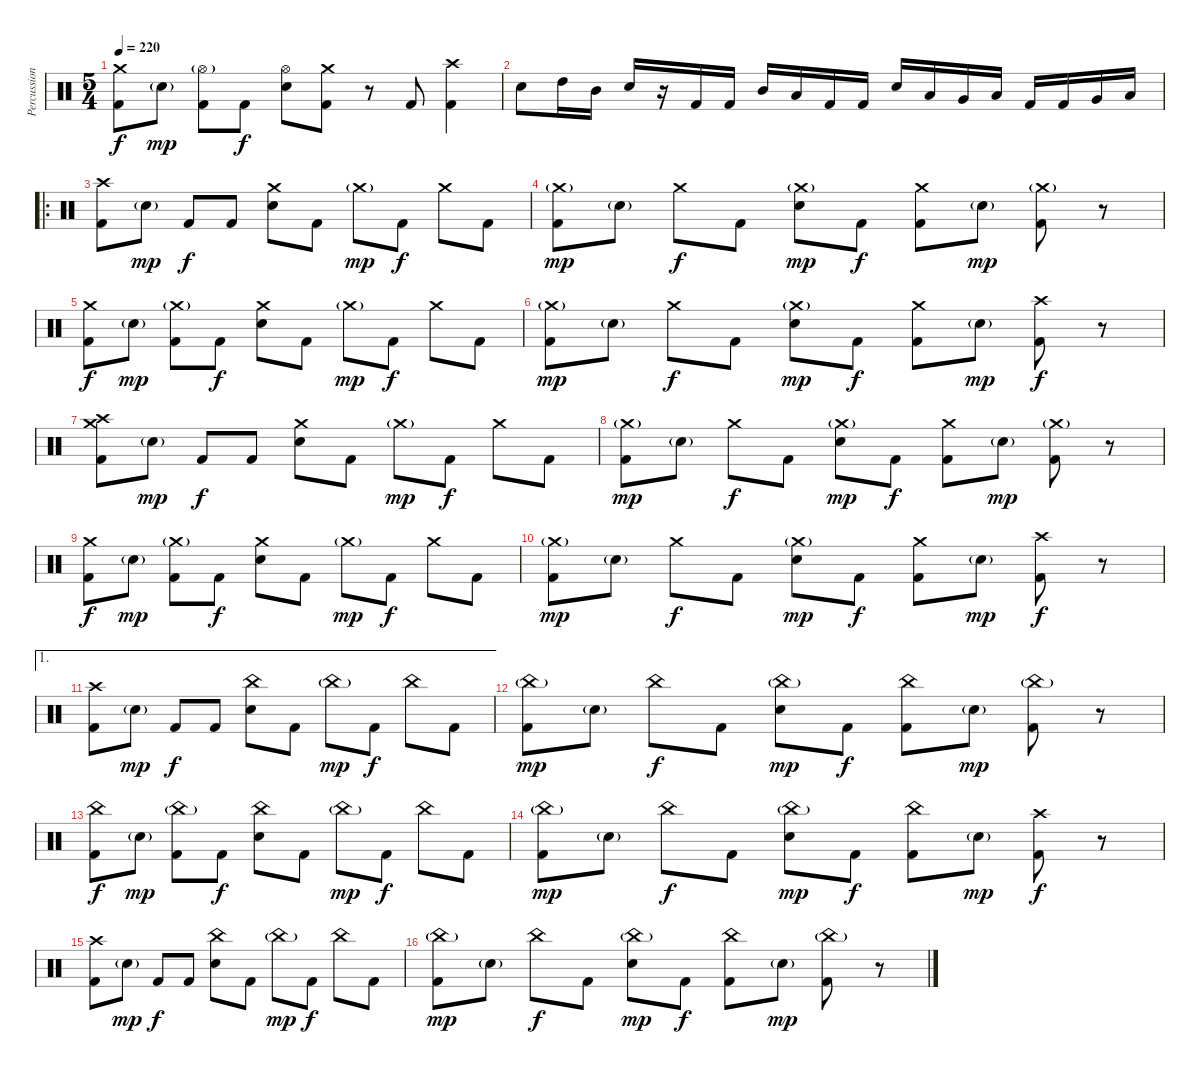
\track ("Percussion" "Percussion") {instrument percussion}
\staff {score}
\articulation defaults
\ts (5 4)
\tempo 220
\clef neutral
\ks c
("Crash medium (hit)" "Kick (hit) 2").8{dy f} "Electric Snare (hit)"{g}.8{dy mp} ("Hi-Hat (open)"{g} "Kick (hit) 2").8 "Kick (hit) 2".8{dy f} ("Hi-Hat (open)" "Electric Snare (hit)").8 ("Crash medium (hit)" "Kick (hit) 2").8 r.8 "Kick (hit) 2".8 ("Crash high (hit)" "Kick (hit) 2").4 |
"Electric Snare (hit)".8 "High Tom (hit)".16 "Mid Tom (hit)".16 "Electric Snare (hit)".16 r.16 "Kick (hit) 2".16 "Kick (hit) 2".16 "Mid Tom (hit)".16 "Low Tom (hit)".16 "Kick (hit) 2".16 "Kick (hit) 2".16 "Electric Snare (hit)".16 "Low Tom (hit)".16 "Very Low Tom (hit)".16 "Low Floor Tom (hit)".16 "Kick (hit) 2".16 "Kick (hit) 2".16 "Very Low Tom (hit)".16 "Low Floor Tom (hit)".16 |
\ro
("Crash high (hit)" "Kick (hit) 2").8 "Electric Snare (hit)"{g}.8{dy mp} "Kick (hit) 2".8{dy f} "Kick (hit) 2".8 ("Crash medium (hit)" "Electric Snare (hit)").8 "Kick (hit) 2".8 "Crash medium (hit)"{g}.8{dy mp} "Kick (hit) 2".8{dy f} "Crash medium (hit)".8 "Kick (hit) 2".8 |
("Crash medium (hit)"{g} "Kick (hit) 2").8{dy mp} "Electric Snare (hit)"{g}.8 "Crash medium (hit)".8{dy f} "Kick (hit) 2".8 ("Crash medium (hit)"{g} "Electric Snare (hit)").8{dy mp} "Kick (hit) 2".8{dy f} ("Crash medium (hit)" "Kick (hit) 2").8 "Electric Snare (hit)"{g}.8{dy mp} ("Crash medium (hit)"{g} "Kick (hit) 2").8 r.8 |
("Crash medium (hit)" "Kick (hit) 2").8{dy f} "Electric Snare (hit)"{g}.8{dy mp} ("Crash medium (hit)"{g} "Kick (hit) 2").8 "Kick (hit) 2".8{dy f} ("Crash medium (hit)" "Electric Snare (hit)").8 "Kick (hit) 2".8 "Crash medium (hit)"{g}.8{dy mp} "Kick (hit) 2".8{dy f} "Crash medium (hit)".8 "Kick (hit) 2".8 |
("Crash medium (hit)"{g} "Kick (hit) 2").8{dy mp} "Electric Snare (hit)"{g}.8 "Crash medium (hit)".8{dy f} "Kick (hit) 2".8 ("Crash medium (hit)"{g} "Electric Snare (hit)").8{dy mp} "Kick (hit) 2".8{dy f} ("Crash medium (hit)" "Kick (hit) 2").8 "Electric Snare (hit)"{g}.8{dy mp} ("Crash high (hit)" "Kick (hit) 2").8{dy f} r.8 |
("Crash high (hit)" "Crash medium (hit)" "Kick (hit) 2").8 "Electric Snare (hit)"{g}.8{dy mp} "Kick (hit) 2".8{dy f} "Kick (hit) 2".8 ("Crash medium (hit)" "Electric Snare (hit)").8 "Kick (hit) 2".8 "Crash medium (hit)"{g}.8{dy mp} "Kick (hit) 2".8{dy f} "Crash medium (hit)".8 "Kick (hit) 2".8 |
("Crash medium (hit)"{g} "Kick (hit) 2").8{dy mp} "Electric Snare (hit)"{g}.8 "Crash medium (hit)".8{dy f} "Kick (hit) 2".8 ("Crash medium (hit)"{g} "Electric Snare (hit)").8{dy mp} "Kick (hit) 2".8{dy f} ("Crash medium (hit)" "Kick (hit) 2").8 "Electric Snare (hit)"{g}.8{dy mp} ("Crash medium (hit)"{g} "Kick (hit) 2").8 r.8 |
("Crash medium (hit)" "Kick (hit) 2").8{dy f} "Electric Snare (hit)"{g}.8{dy mp} ("Crash medium (hit)"{g} "Kick (hit) 2").8 "Kick (hit) 2".8{dy f} ("Crash medium (hit)" "Electric Snare (hit)").8 "Kick (hit) 2".8 "Crash medium (hit)"{g}.8{dy mp} "Kick (hit) 2".8{dy f} "Crash medium (hit)".8 "Kick (hit) 2".8 |
("Crash medium (hit)"{g} "Kick (hit) 2").8{dy mp} "Electric Snare (hit)"{g}.8 "Crash medium (hit)".8{dy f} "Kick (hit) 2".8 ("Crash medium (hit)"{g} "Electric Snare (hit)").8{dy mp} "Kick (hit) 2".8{dy f} ("Crash medium (hit)" "Kick (hit) 2").8 "Electric Snare (hit)"{g}.8{dy mp} ("Crash high (hit)" "Kick (hit) 2").8{dy f} r.8 |
\ae 1
("Crash high (hit)" "Kick (hit) 2").8 "Electric Snare (hit)"{g}.8{dy mp} "Kick (hit) 2".8{dy f} "Kick (hit) 2".8 ("China (hit)" "Electric Snare (hit)").8 "Kick (hit) 2".8 "China (hit)"{g}.8{dy mp} "Kick (hit) 2".8{dy f} "China (hit)".8 "Kick (hit) 2".8 |
("China (hit)"{g} "Kick (hit) 2").8{dy mp} "Electric Snare (hit)"{g}.8 "China (hit)".8{dy f} "Kick (hit) 2".8 ("China (hit)"{g} "Electric Snare (hit)").8{dy mp} "Kick (hit) 2".8{dy f} ("China (hit)" "Kick (hit) 2").8 "Electric Snare (hit)"{g}.8{dy mp} ("China (hit)"{g} "Kick (hit) 2").8 r.8 |
("China (hit)" "Kick (hit) 2").8{dy f} "Electric Snare (hit)"{g}.8{dy mp} ("China (hit)"{g} "Kick (hit) 2").8 "Kick (hit) 2".8{dy f} ("China (hit)" "Electric Snare (hit)").8 "Kick (hit) 2".8 "China (hit)"{g}.8{dy mp} "Kick (hit) 2".8{dy f} "China (hit)".8 "Kick (hit) 2".8 |
("China (hit)"{g} "Kick (hit) 2").8{dy mp} "Electric Snare (hit)"{g}.8 "China (hit)".8{dy f} "Kick (hit) 2".8 ("China (hit)"{g} "Electric Snare (hit)").8{dy mp} "Kick (hit) 2".8{dy f} ("China (hit)" "Kick (hit) 2").8 "Electric Snare (hit)"{g}.8{dy mp} ("Crash high (hit)" "Kick (hit) 2").8{dy f} r.8 |
("Crash high (hit)" "Kick (hit) 2").8 "Electric Snare (hit)"{g}.8{dy mp} "Kick (hit) 2".8{dy f} "Kick (hit) 2".8 ("China (hit)" "Electric Snare (hit)").8 "Kick (hit) 2".8 "China (hit)"{g}.8{dy mp} "Kick (hit) 2".8{dy f} "China (hit)".8 "Kick (hit) 2".8 |
("China (hit)"{g} "Kick (hit) 2").8{dy mp} "Electric Snare (hit)"{g}.8 "China (hit)".8{dy f} "Kick (hit) 2".8 ("China (hit)"{g} "Electric Snare (hit)").8{dy mp} "Kick (hit) 2".8{dy f} ("China (hit)" "Kick (hit) 2").8 "Electric Snare (hit)"{g}.8{dy mp} ("China (hit)"{g} "Kick (hit) 2").8 r.8
